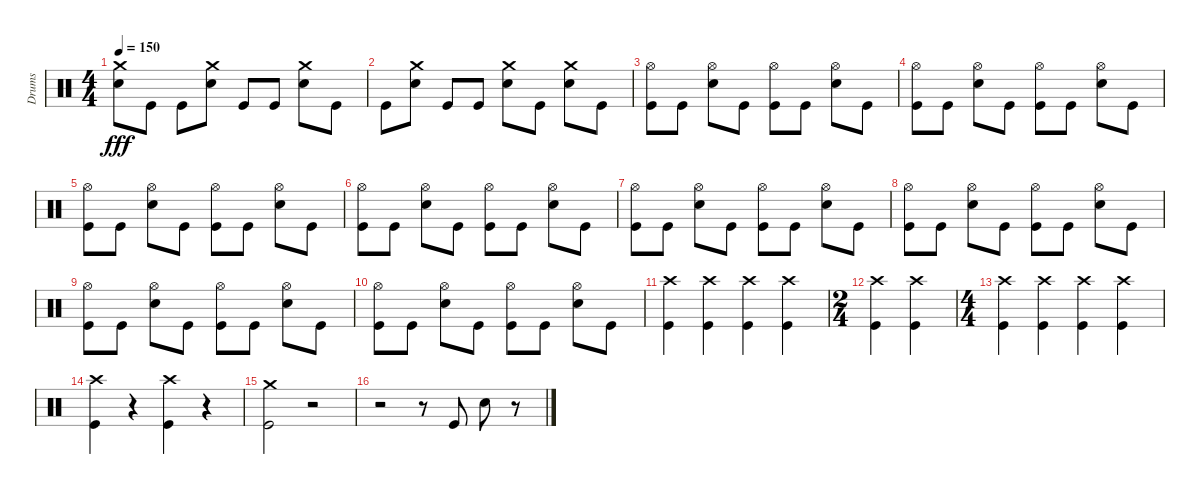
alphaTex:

\track ("Drums" "Drums") {instrument percussion}
\staff {score}
\articulation defaults
\ts (4 4)
\tempo 150
\clef neutral
\ks c
("Crash medium (hit)" "Snare (hit) 2").8{dy fff} "Kick (hit)".8 "Kick (hit)".8 ("Crash medium (hit)" "Snare (hit) 2").8 "Kick (hit)".8 "Kick (hit)".8 ("Crash medium (hit)" "Snare (hit) 2").8 "Kick (hit)".8 |
"Kick (hit)".8 ("Crash medium (hit)" "Snare (hit) 2").8 "Kick (hit)".8 "Kick (hit)".8 ("Crash medium (hit)" "Snare (hit) 2").8 "Kick (hit)".8 ("Crash medium (hit)" "Snare (hit) 2").8 "Kick (hit)".8 |
("Hi-Hat (open)" "Kick (hit)").8 "Kick (hit)".8 ("Hi-Hat (open)" "Snare (hit) 2").8 "Kick (hit)".8 ("Hi-Hat (open)" "Kick (hit)").8 "Kick (hit)".8 ("Hi-Hat (open)" "Snare (hit) 2").8 "Kick (hit)".8 |
("Hi-Hat (open)" "Kick (hit)").8 "Kick (hit)".8 ("Hi-Hat (open)" "Snare (hit) 2").8 "Kick (hit)".8 ("Hi-Hat (open)" "Kick (hit)").8 "Kick (hit)".8 ("Hi-Hat (open)" "Snare (hit) 2").8 "Kick (hit)".8 |
("Hi-Hat (open)" "Kick (hit)").8 "Kick (hit)".8 ("Hi-Hat (open)" "Snare (hit) 2").8 "Kick (hit)".8 ("Hi-Hat (open)" "Kick (hit)").8 "Kick (hit)".8 ("Hi-Hat (open)" "Snare (hit) 2").8 "Kick (hit)".8 |
("Hi-Hat (open)" "Kick (hit)").8 "Kick (hit)".8 ("Hi-Hat (open)" "Snare (hit) 2").8 "Kick (hit)".8 ("Hi-Hat (open)" "Kick (hit)").8 "Kick (hit)".8 ("Hi-Hat (open)" "Snare (hit) 2").8 "Kick (hit)".8 |
("Hi-Hat (open)" "Kick (hit)").8 "Kick (hit)".8 ("Hi-Hat (open)" "Snare (hit) 2").8 "Kick (hit)".8 ("Hi-Hat (open)" "Kick (hit)").8 "Kick (hit)".8 ("Hi-Hat (open)" "Snare (hit) 2").8 "Kick (hit)".8 |
("Hi-Hat (open)" "Kick (hit)").8 "Kick (hit)".8 ("Hi-Hat (open)" "Snare (hit) 2").8 "Kick (hit)".8 ("Hi-Hat (open)" "Kick (hit)").8 "Kick (hit)".8 ("Hi-Hat (open)" "Snare (hit) 2").8 "Kick (hit)".8 |
("Hi-Hat (open)" "Kick (hit)").8 "Kick (hit)".8 ("Hi-Hat (open)" "Snare (hit) 2").8 "Kick (hit)".8 ("Hi-Hat (open)" "Kick (hit)").8 "Kick (hit)".8 ("Hi-Hat (open)" "Snare (hit) 2").8 "Kick (hit)".8 |
("Hi-Hat (open)" "Kick (hit)").8 "Kick (hit)".8 ("Hi-Hat (open)" "Snare (hit) 2").8 "Kick (hit)".8 ("Hi-Hat (open)" "Kick (hit)").8 "Kick (hit)".8 ("Hi-Hat (open)" "Snare (hit) 2").8 "Kick (hit)".8 |
("Kick (hit)" "Crash high (hit)").4 ("Kick (hit)" "Crash high (hit)").4 ("Kick (hit)" "Crash high (hit)").4 ("Kick (hit)" "Crash high (hit)").4 |
\ts (2 4)
("Kick (hit)" "Crash high (hit)").4 ("Kick (hit)" "Crash high (hit)").4 |
\ts (4 4)
("Kick (hit)" "Crash high (hit)").4 ("Kick (hit)" "Crash high (hit)").4 ("Kick (hit)" "Crash high (hit)").4 ("Kick (hit)" "Crash high (hit)").4 |
("Kick (hit)" "Crash high (hit)").4 r.4 ("Kick (hit)" "Crash high (hit)").4 r.4 |
("Kick (hit)" "Crash medium (hit)").2 r.2 |
r.2 r.8 "Kick (hit)".8 "Snare (hit) 2".8 r.8
